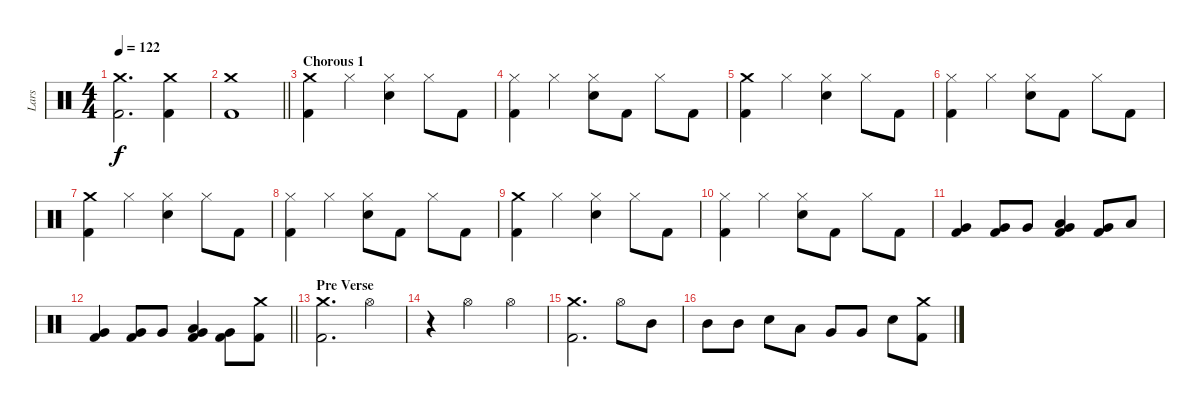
\track ("Lars" "Lars") {instrument percussion}
\staff {score}
\articulation defaults
\ts (4 4)
\tempo 122
\clef neutral
\ks c
("Crash medium (hit)" "Kick (hit) 2").2{d dy f} ("Crash medium (hit)" "Kick (hit) 2").4 |
\barLineRight lightlight
("Crash medium (hit)" "Kick (hit) 2").1 |
\section ("" "Chorous 1")
("Crash medium (hit)" "Kick (hit) 2").4 "Hi-Hat (closed)".4 ("Hi-Hat (closed)" "Snare (hit) 2").4 "Hi-Hat (closed)".8 "Kick (hit) 2".8 |
("Hi-Hat (closed)" "Kick (hit) 2").4 "Hi-Hat (closed)".4 ("Hi-Hat (closed)" "Snare (hit) 2").8 "Kick (hit) 2".8 "Hi-Hat (closed)".8 "Kick (hit) 2".8 |
("Crash medium (hit)" "Kick (hit) 2").4 "Hi-Hat (closed)".4 ("Hi-Hat (closed)" "Snare (hit) 2").4 "Hi-Hat (closed)".8 "Kick (hit) 2".8 |
("Hi-Hat (closed)" "Kick (hit) 2").4 "Hi-Hat (closed)".4 ("Hi-Hat (closed)" "Snare (hit) 2").8 "Kick (hit) 2".8 "Hi-Hat (closed)".8 "Kick (hit) 2".8 |
("Crash medium (hit)" "Kick (hit) 2").4 "Hi-Hat (closed)".4 ("Hi-Hat (closed)" "Snare (hit) 2").4 "Hi-Hat (closed)".8 "Kick (hit) 2".8 |
("Hi-Hat (closed)" "Kick (hit) 2").4 "Hi-Hat (closed)".4 ("Hi-Hat (closed)" "Snare (hit) 2").8 "Kick (hit) 2".8 "Hi-Hat (closed)".8 "Kick (hit) 2".8 |
("Crash medium (hit)" "Kick (hit) 2").4 "Hi-Hat (closed)".4 ("Hi-Hat (closed)" "Snare (hit) 2").4 "Hi-Hat (closed)".8 "Kick (hit) 2".8 |
("Hi-Hat (closed)" "Kick (hit) 2").4 "Hi-Hat (closed)".4 ("Hi-Hat (closed)" "Snare (hit) 2").8 "Kick (hit) 2".8 "Hi-Hat (closed)".8 "Kick (hit) 2".8 |
("Very Low Tom (hit)" "Kick (hit) 2").4 ("Very Low Tom (hit)" "Kick (hit) 2").8 "Very Low Tom (hit)".8 ("Very Low Tom (hit)" "Kick (hit) 2" "Low Tom (hit)").4 ("Very Low Tom (hit)" "Kick (hit) 2").8 "Low Tom (hit)".8 |
\barLineRight lightlight
("Very Low Tom (hit)" "Kick (hit) 2").4 ("Very Low Tom (hit)" "Kick (hit) 2").8 "Very Low Tom (hit)".8 ("Very Low Tom (hit)" "Kick (hit) 2" "Low Tom (hit)").4 ("Very Low Tom (hit)" "Kick (hit) 2").8 ("Crash medium (hit)" "Kick (hit) 2").8 |
\section ("" "Pre Verse ")
("Crash medium (hit)" "Kick (hit) 2").2{d} "Hi-Hat (open)".4 |
r.4 "Hi-Hat (open)".2 "Hi-Hat (open)".4 |
("Crash medium (hit)" "Kick (hit) 2").2{d} "Hi-Hat (open)".8 "Mid Tom (hit)".8 |
"Mid Tom (hit)".8 "Mid Tom (hit)".8 "Snare (hit) 2".8 "Low Tom (hit)".8 "Very Low Tom (hit)".8 "Very Low Tom (hit)".8 "Snare (hit) 2".8 ("Crash medium (hit)" "Kick (hit) 2").8
